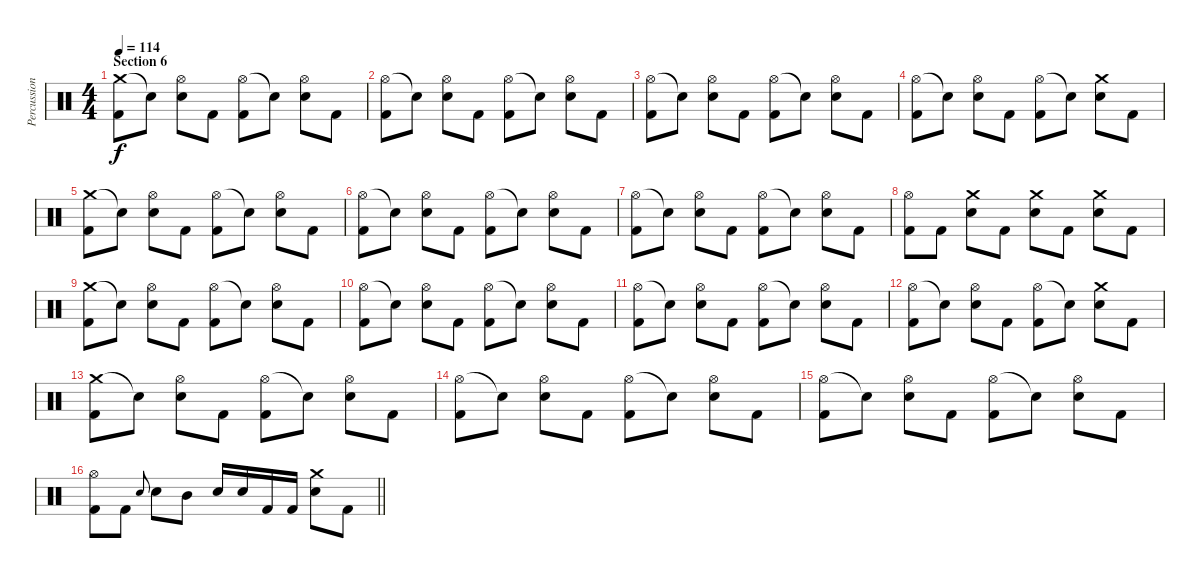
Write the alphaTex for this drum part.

\track ("Percussion" "Percussion") {instrument percussion}
\staff {score}
\articulation defaults
\ts (4 4)
\section ("" "Section 6")
\tempo 114
\clef neutral
\ks c
("Crash medium (hit)" "Kick (hit) 2").8{dy f} "Snare (hit)"{t}.8 ("Snare (hit) 2" "Hi-Hat (open)").8 "Kick (hit) 2".8 ("Hi-Hat (open)" "Kick (hit) 2").8 "Snare (hit)"{t}.8 ("Snare (hit) 2" "Hi-Hat (open)").8 "Kick (hit) 2".8 |
("Hi-Hat (open)" "Kick (hit) 2").8 "Snare (hit)"{t}.8 ("Snare (hit) 2" "Hi-Hat (open)").8 "Kick (hit) 2".8 ("Hi-Hat (open)" "Kick (hit) 2").8 "Snare (hit)"{t}.8 ("Snare (hit) 2" "Hi-Hat (open)").8 "Kick (hit) 2".8 |
("Hi-Hat (open)" "Kick (hit) 2").8 "Snare (hit)"{t}.8 ("Snare (hit) 2" "Hi-Hat (open)").8 "Kick (hit) 2".8 ("Hi-Hat (open)" "Kick (hit) 2").8 "Snare (hit)"{t}.8 ("Snare (hit) 2" "Hi-Hat (open)").8 "Kick (hit) 2".8 |
("Hi-Hat (open)" "Kick (hit) 2").8 "Snare (hit)"{t}.8 ("Snare (hit) 2" "Hi-Hat (open)").8 "Kick (hit) 2".8 ("Hi-Hat (open)" "Kick (hit) 2").8 "Snare (hit)"{t}.8 ("Crash medium (hit)" "Snare (hit) 2").8 "Kick (hit) 2".8 |
("Crash medium (hit)" "Kick (hit) 2").8 "Snare (hit)"{t}.8 ("Snare (hit) 2" "Hi-Hat (open)").8 "Kick (hit) 2".8 ("Hi-Hat (open)" "Kick (hit) 2").8 "Snare (hit)"{t}.8 ("Snare (hit) 2" "Hi-Hat (open)").8 "Kick (hit) 2".8 |
("Hi-Hat (open)" "Kick (hit) 2").8 "Snare (hit)"{t}.8 ("Snare (hit) 2" "Hi-Hat (open)").8 "Kick (hit) 2".8 ("Hi-Hat (open)" "Kick (hit) 2").8 "Snare (hit)"{t}.8 ("Snare (hit) 2" "Hi-Hat (open)").8 "Kick (hit) 2".8 |
("Hi-Hat (open)" "Kick (hit) 2").8 "Snare (hit)"{t}.8 ("Snare (hit) 2" "Hi-Hat (open)").8 "Kick (hit) 2".8 ("Hi-Hat (open)" "Kick (hit) 2").8 "Snare (hit)"{t}.8 ("Snare (hit) 2" "Hi-Hat (open)").8 "Kick (hit) 2".8 |
("Hi-Hat (open)" "Kick (hit) 2").8 "Kick (hit) 2".8 ("Crash medium (hit)" "Snare (hit) 2").8 "Kick (hit) 2".8 ("Crash medium (hit)" "Snare (hit) 2").8 "Kick (hit) 2".8 ("Crash medium (hit)" "Snare (hit) 2").8 "Kick (hit) 2".8 |
("Crash medium (hit)" "Kick (hit) 2").8 "Snare (hit)"{t}.8 ("Snare (hit) 2" "Hi-Hat (open)").8 "Kick (hit) 2".8 ("Hi-Hat (open)" "Kick (hit) 2").8 "Snare (hit)"{t}.8 ("Snare (hit) 2" "Hi-Hat (open)").8 "Kick (hit) 2".8 |
("Hi-Hat (open)" "Kick (hit) 2").8 "Snare (hit)"{t}.8 ("Snare (hit) 2" "Hi-Hat (open)").8 "Kick (hit) 2".8 ("Hi-Hat (open)" "Kick (hit) 2").8 "Snare (hit)"{t}.8 ("Snare (hit) 2" "Hi-Hat (open)").8 "Kick (hit) 2".8 |
("Hi-Hat (open)" "Kick (hit) 2").8 "Snare (hit)"{t}.8 ("Snare (hit) 2" "Hi-Hat (open)").8 "Kick (hit) 2".8 ("Hi-Hat (open)" "Kick (hit) 2").8 "Snare (hit)"{t}.8 ("Snare (hit) 2" "Hi-Hat (open)").8 "Kick (hit) 2".8 |
("Hi-Hat (open)" "Kick (hit) 2").8 "Snare (hit)"{t}.8 ("Snare (hit) 2" "Hi-Hat (open)").8 "Kick (hit) 2".8 ("Hi-Hat (open)" "Kick (hit) 2").8 "Snare (hit)"{t}.8 ("Crash medium (hit)" "Snare (hit) 2").8 "Kick (hit) 2".8 |
("Crash medium (hit)" "Kick (hit) 2").8 "Snare (hit)"{t}.8 ("Snare (hit) 2" "Hi-Hat (open)").8 "Kick (hit) 2".8 ("Hi-Hat (open)" "Kick (hit) 2").8 "Snare (hit)"{t}.8 ("Snare (hit) 2" "Hi-Hat (open)").8 "Kick (hit) 2".8 |
("Hi-Hat (open)" "Kick (hit) 2").8 "Snare (hit)"{t}.8 ("Snare (hit) 2" "Hi-Hat (open)").8 "Kick (hit) 2".8 ("Hi-Hat (open)" "Kick (hit) 2").8 "Snare (hit)"{t}.8 ("Snare (hit) 2" "Hi-Hat (open)").8 "Kick (hit) 2".8 |
("Hi-Hat (open)" "Kick (hit) 2").8 "Snare (hit)"{t}.8 ("Snare (hit) 2" "Hi-Hat (open)").8 "Kick (hit) 2".8 ("Hi-Hat (open)" "Kick (hit) 2").8 "Snare (hit)"{t}.8 ("Snare (hit) 2" "Hi-Hat (open)").8 "Kick (hit) 2".8 |
\barLineRight lightlight
("Hi-Hat (open)" "Kick (hit) 2").8 "Kick (hit) 2".8 "Snare (hit) 2".8{gr onbeat} "Snare (hit) 2".8 "Mid Tom (hit)".8 "Snare (hit) 2".16 "Snare (hit) 2".16 "Kick (hit) 2".16 "Kick (hit) 2".16 ("Crash medium (hit)" "Snare (hit) 2").8 "Kick (hit) 2".8
